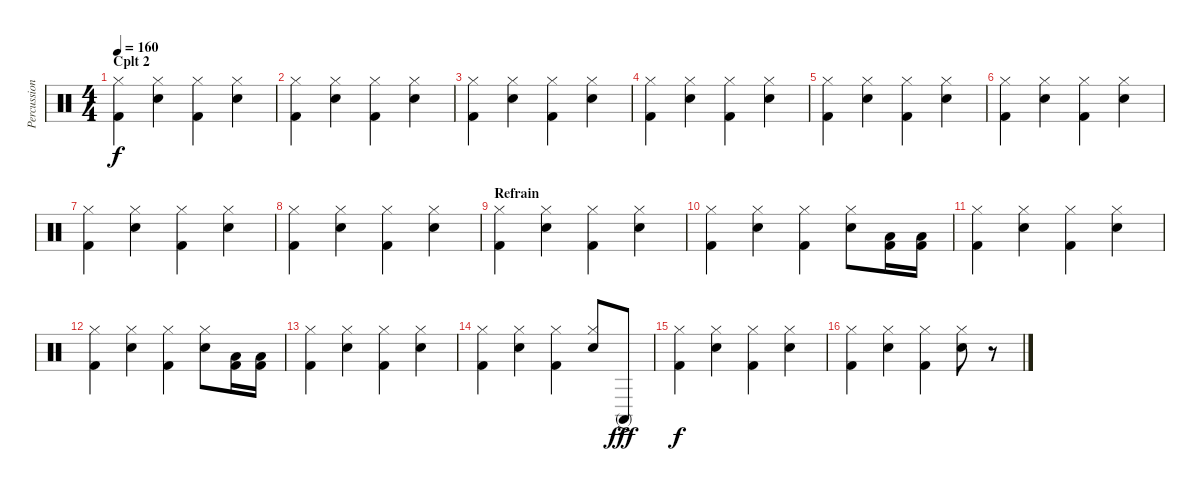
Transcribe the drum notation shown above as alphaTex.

\track ("Percussions" "Percussion") {instrument percussion}
\staff {score}
\articulation defaults
\ts (4 4)
\section ("" "Cplt 2")
\tempo 160
\clef neutral
\ks c
("Hi-Hat (closed)" "Kick (hit) 2").4{dy f} ("Hi-Hat (closed)" "Snare (hit) 2").4 ("Hi-Hat (closed)" "Kick (hit) 2").4 ("Hi-Hat (closed)" "Snare (hit) 2").4 |
("Hi-Hat (closed)" "Kick (hit) 2").4 ("Hi-Hat (closed)" "Snare (hit) 2").4 ("Hi-Hat (closed)" "Kick (hit) 2").4 ("Hi-Hat (closed)" "Snare (hit) 2").4 |
("Hi-Hat (closed)" "Kick (hit) 2").4 ("Hi-Hat (closed)" "Snare (hit) 2").4 ("Hi-Hat (closed)" "Kick (hit) 2").4 ("Hi-Hat (closed)" "Snare (hit) 2").4 |
("Hi-Hat (closed)" "Kick (hit) 2").4 ("Hi-Hat (closed)" "Snare (hit) 2").4 ("Hi-Hat (closed)" "Kick (hit) 2").4 ("Hi-Hat (closed)" "Snare (hit) 2").4 |
("Hi-Hat (closed)" "Kick (hit) 2").4 ("Hi-Hat (closed)" "Snare (hit) 2").4 ("Hi-Hat (closed)" "Kick (hit) 2").4 ("Hi-Hat (closed)" "Snare (hit) 2").4 |
("Hi-Hat (closed)" "Kick (hit) 2").4 ("Hi-Hat (closed)" "Snare (hit) 2").4 ("Hi-Hat (closed)" "Kick (hit) 2").4 ("Hi-Hat (closed)" "Snare (hit) 2").4 |
("Hi-Hat (closed)" "Kick (hit) 2").4 ("Hi-Hat (closed)" "Snare (hit) 2").4 ("Hi-Hat (closed)" "Kick (hit) 2").4 ("Hi-Hat (closed)" "Snare (hit) 2").4 |
("Hi-Hat (closed)" "Kick (hit) 2").4 ("Hi-Hat (closed)" "Snare (hit) 2").4 ("Hi-Hat (closed)" "Kick (hit) 2").4 ("Hi-Hat (closed)" "Snare (hit) 2").4 |
\section ("" "Refrain")
("Hi-Hat (closed)" "Kick (hit) 2").4 ("Hi-Hat (closed)" "Snare (hit) 2").4 ("Hi-Hat (closed)" "Kick (hit) 2").4 ("Hi-Hat (closed)" "Snare (hit) 2").4 |
("Hi-Hat (closed)" "Kick (hit) 2").4 ("Hi-Hat (closed)" "Snare (hit) 2").4 ("Hi-Hat (closed)" "Kick (hit) 2").4 ("Hi-Hat (closed)" "Snare (hit) 2").8 ("Low Tom (hit)" "Kick (hit) 2").16 ("Low Floor Tom (hit)" "Kick (hit) 2").16 |
("Hi-Hat (closed)" "Kick (hit) 2").4 ("Hi-Hat (closed)" "Snare (hit) 2").4 ("Hi-Hat (closed)" "Kick (hit) 2").4 ("Hi-Hat (closed)" "Snare (hit) 2").4 |
("Hi-Hat (closed)" "Kick (hit) 2").4 ("Hi-Hat (closed)" "Snare (hit) 2").4 ("Hi-Hat (closed)" "Kick (hit) 2").4 ("Hi-Hat (closed)" "Snare (hit) 2").8 ("Low Tom (hit)" "Kick (hit) 2").16 ("Low Floor Tom (hit)" "Kick (hit) 2").16 |
("Hi-Hat (closed)" "Kick (hit) 2").4 ("Hi-Hat (closed)" "Snare (hit) 2").4 ("Hi-Hat (closed)" "Kick (hit) 2").4 ("Hi-Hat (closed)" "Snare (hit) 2").4 |
("Hi-Hat (closed)" "Kick (hit) 2").4 ("Hi-Hat (closed)" "Snare (hit) 2").4 ("Hi-Hat (closed)" "Kick (hit) 2").4 ("Hi-Hat (closed)" "Snare (hit) 2").8 "Conga high (mute)"{ac}.8{dy fff} |
("Hi-Hat (closed)" "Kick (hit) 2").4{dy f} ("Hi-Hat (closed)" "Snare (hit) 2").4 ("Hi-Hat (closed)" "Kick (hit) 2").4 ("Hi-Hat (closed)" "Snare (hit) 2").4 |
("Hi-Hat (closed)" "Kick (hit) 2").4 ("Hi-Hat (closed)" "Snare (hit) 2").4 ("Hi-Hat (closed)" "Kick (hit) 2").4 ("Hi-Hat (closed)" "Snare (hit) 2").8 r.8
